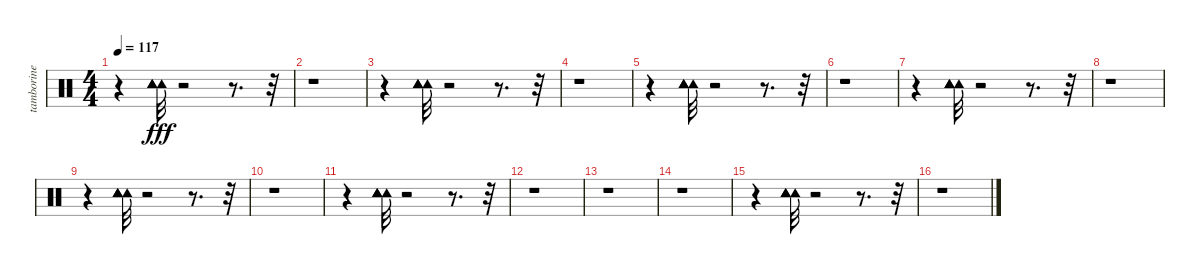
\track ("tamborine" "tamborine") {instrument percussion}
\staff {score}
\articulation defaults
\ts (4 4)
\tempo 117
\clef neutral
\ks c
r.4{dy fff} ("Tambourine (hit)" "Tambourine (hit)" "Tambourine (hit)" "Tambourine (hit)").32 r.2 r.8{d} r.32 |
r.1 |
r.4 ("Tambourine (hit)" "Tambourine (hit)" "Tambourine (hit)" "Tambourine (hit)").32 r.2 r.8{d} r.32 |
r.1 |
r.4 ("Tambourine (hit)" "Tambourine (hit)" "Tambourine (hit)" "Tambourine (hit)").32 r.2 r.8{d} r.32 |
r.1 |
r.4 ("Tambourine (hit)" "Tambourine (hit)" "Tambourine (hit)" "Tambourine (hit)").32 r.2 r.8{d} r.32 |
r.1 |
r.4 ("Tambourine (hit)" "Tambourine (hit)" "Tambourine (hit)" "Tambourine (hit)").32 r.2 r.8{d} r.32 |
r.1 |
r.4 ("Tambourine (hit)" "Tambourine (hit)" "Tambourine (hit)" "Tambourine (hit)").32 r.2 r.8{d} r.32 |
r.1 |
r.1 |
r.1 |
r.4 ("Tambourine (hit)" "Tambourine (hit)" "Tambourine (hit)" "Tambourine (hit)").32 r.2 r.8{d} r.32 |
r.1
